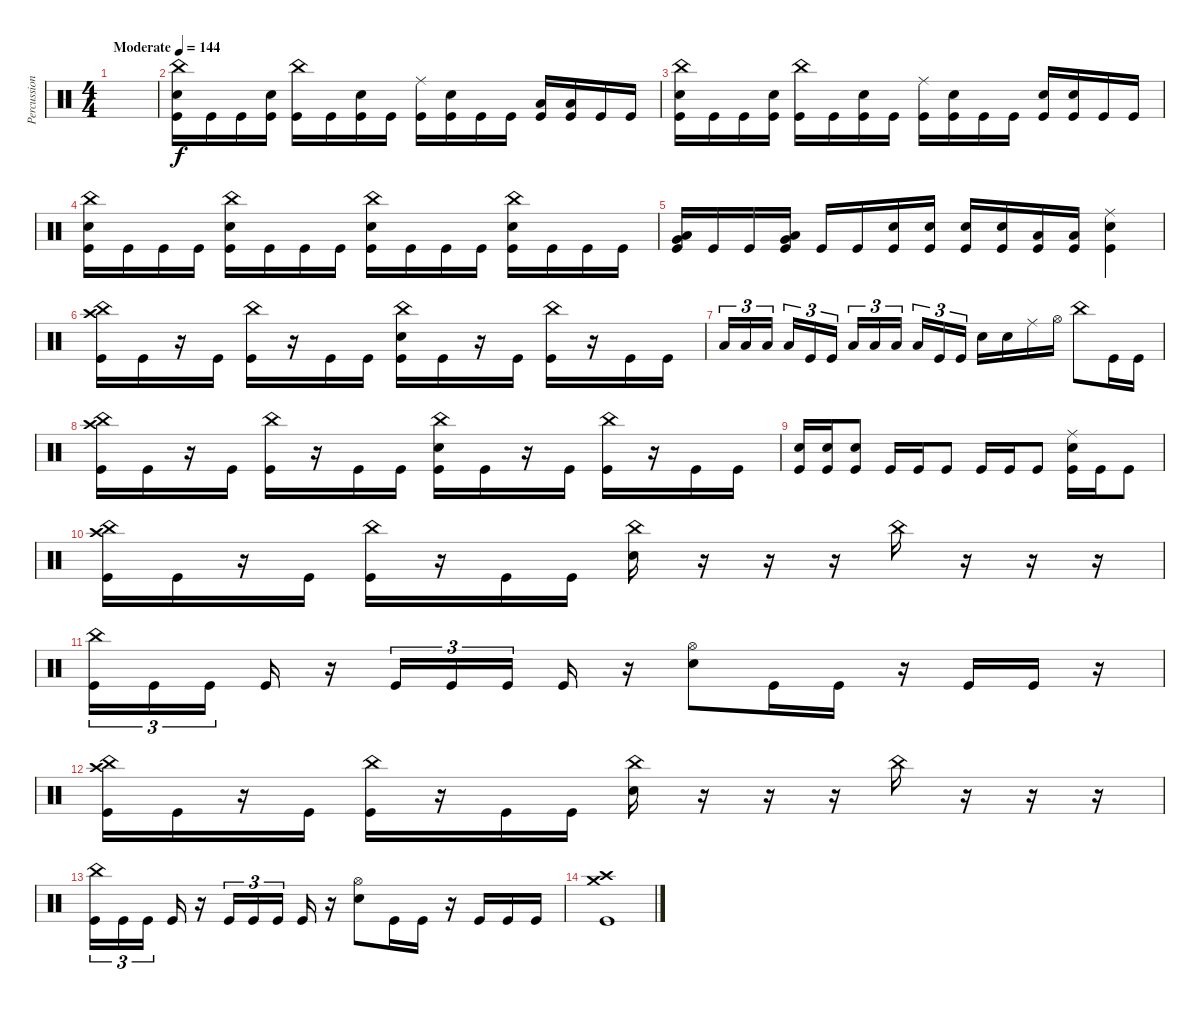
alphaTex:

\track ("Percussion" "Percussion") {instrument percussion}
\staff {score}
\articulation defaults
\ts (4 4)
\tempo (144 "Moderate")
\clef neutral
\ks c
|
("China (hit)" "Electric Snare (hit)" "Kick (hit)").16 "Kick (hit)".16 "Kick (hit)".16 ("Electric Snare (hit)" "Kick (hit)").16 ("China (hit)" "Kick (hit)").16 "Kick (hit)".16 ("Electric Snare (hit)" "Kick (hit)").16 "Kick (hit)".16 ("Ride (middle)" "Kick (hit)").16 ("Electric Snare (hit)" "Kick (hit)").16 "Kick (hit)".16 "Kick (hit)".16 ("Low Floor Tom (hit)" "Kick (hit)").16 ("Low Floor Tom (hit)" "Kick (hit)").16 "Kick (hit)".16 "Kick (hit)".16 |
("China (hit)" "Electric Snare (hit)" "Kick (hit)").16 "Kick (hit)".16 "Kick (hit)".16 ("Electric Snare (hit)" "Kick (hit)").16 ("China (hit)" "Kick (hit)").16 "Kick (hit)".16 ("Electric Snare (hit)" "Kick (hit)").16 "Kick (hit)".16 ("Ride (middle)" "Kick (hit)").16 ("Electric Snare (hit)" "Kick (hit)").16 "Kick (hit)".16 "Kick (hit)".16 ("Electric Snare (hit)" "Kick (hit)").16 ("Electric Snare (hit)" "Kick (hit)").16 "Kick (hit)".16 "Kick (hit)".16 |
("China (hit)" "Electric Snare (hit)" "Kick (hit)").16 "Kick (hit)".16 "Kick (hit)".16 "Kick (hit)".16 ("China (hit)" "Electric Snare (hit)" "Kick (hit)").16 "Kick (hit)".16 "Kick (hit)".16 "Kick (hit)".16 ("China (hit)" "Electric Snare (hit)" "Kick (hit)").16 "Kick (hit)".16 "Kick (hit)".16 "Kick (hit)".16 ("China (hit)" "Electric Snare (hit)" "Kick (hit)").16 "Kick (hit)".16 "Kick (hit)".16 "Kick (hit)".16 |
("Low Tom (hit)" "Very Low Tom (hit)" "Kick (hit)").16 "Kick (hit)".16 "Kick (hit)".16 ("Low Floor Tom (hit)" "Very Low Tom (hit)" "Kick (hit)").16 "Kick (hit)".16 "Kick (hit)".16 ("Electric Snare (hit)" "Kick (hit)").16 ("Electric Snare (hit)" "Kick (hit)").16 ("Electric Snare (hit)" "Kick (hit)").16 ("Electric Snare (hit)" "Kick (hit)").16 ("Low Floor Tom (hit)" "Kick (hit)").16 ("Low Floor Tom (hit)" "Kick (hit)").16 ("Ride (middle)" "Electric Snare (hit)" "Kick (hit)").4 |
("Crash high (hit)" "China (hit)" "Kick (hit)").16 "Kick (hit)".16 r.16 "Kick (hit)".16 ("China (hit)" "Kick (hit)").16 r.16 "Kick (hit)".16 "Kick (hit)".16 ("China (hit)" "Electric Snare (hit)" "Kick (hit)").16 "Kick (hit)".16 r.16 "Kick (hit)".16 ("China (hit)" "Kick (hit)").16 r.16 "Kick (hit)".16 "Kick (hit)".16 |
"Low Tom (hit)".16{tu (3 2)} "Low Tom (hit)".16{tu (3 2)} "Low Tom (hit)".16{tu (3 2) beam splitsecondary} "Low Tom (hit)".16{tu (3 2)} "Kick (hit)".16{tu (3 2)} "Kick (hit)".16{tu (3 2)} "Low Floor Tom (hit)".16{tu (3 2)} "Low Floor Tom (hit)".16{tu (3 2)} "Low Floor Tom (hit)".16{tu (3 2) beam splitsecondary} "Low Floor Tom (hit)".16{tu (3 2)} "Kick (hit)".16{tu (3 2)} "Kick (hit)".16{tu (3 2)} "Electric Snare (hit)".16 "Electric Snare (hit)".16 "Ride (middle)".16 "Hi-Hat (open)".16 "China (hit)".8 "Kick (hit)".16 "Kick (hit)".16 |
("Crash high (hit)" "China (hit)" "Kick (hit)").16 "Kick (hit)".16 r.16 "Kick (hit)".16 ("China (hit)" "Kick (hit)").16 r.16 "Kick (hit)".16 "Kick (hit)".16 ("China (hit)" "Electric Snare (hit)" "Kick (hit)").16 "Kick (hit)".16 r.16 "Kick (hit)".16 ("China (hit)" "Kick (hit)").16 r.16 "Kick (hit)".16 "Kick (hit)".16 |
("Electric Snare (hit)" "Kick (hit)").16 ("Electric Snare (hit)" "Kick (hit)").16 ("Electric Snare (hit)" "Kick (hit)").8 "Kick (hit)".16 "Kick (hit)".16 "Kick (hit)".8 "Kick (hit)".16 "Kick (hit)".16 "Kick (hit)".8 ("Ride (middle)" "Electric Snare (hit)" "Kick (hit)").16 "Kick (hit)".16 "Kick (hit)".8 |
("Crash high (hit)" "China (hit)" "Kick (hit)").16 "Kick (hit)".16 r.16 "Kick (hit)".16 ("China (hit)" "Kick (hit)").16 r.16 "Kick (hit)".16 "Kick (hit)".16 ("China (hit)" "Electric Snare (hit)").16 r.16 r.16 r.16 "China (hit)".16 r.16 r.16 r.16 |
("China (hit)" "Kick (hit)").16{tu (3 2)} "Kick (hit)".16{tu (3 2)} "Kick (hit)".16{tu (3 2) beam splitsecondary} "Kick (hit)".16 r.16 "Kick (hit)".16{tu (3 2)} "Kick (hit)".16{tu (3 2)} "Kick (hit)".16{tu (3 2) beam splitsecondary} "Kick (hit)".16 r.16 ("Hi-Hat (open)" "Electric Snare (hit)").8 "Kick (hit)".16 "Kick (hit)".16 r.16 "Kick (hit)".16 "Kick (hit)".16 r.16 |
("Crash high (hit)" "China (hit)" "Kick (hit)").16 "Kick (hit)".16 r.16 "Kick (hit)".16 ("China (hit)" "Kick (hit)").16 r.16 "Kick (hit)".16 "Kick (hit)".16 ("China (hit)" "Electric Snare (hit)").16 r.16 r.16 r.16 "China (hit)".16 r.16 r.16 r.16 |
("China (hit)" "Kick (hit)").16{tu (3 2)} "Kick (hit)".16{tu (3 2)} "Kick (hit)".16{tu (3 2) beam splitsecondary} "Kick (hit)".16 r.16 "Kick (hit)".16{tu (3 2)} "Kick (hit)".16{tu (3 2)} "Kick (hit)".16{tu (3 2) beam splitsecondary} "Kick (hit)".16 r.16 ("Hi-Hat (open)" "Electric Snare (hit)").8 "Kick (hit)".16 "Kick (hit)".16 r.16 "Kick (hit)".16 "Kick (hit)".16 "Kick (hit)".16 |
("Crash medium (hit)" "Crash high (hit)" "Kick (hit)").1
